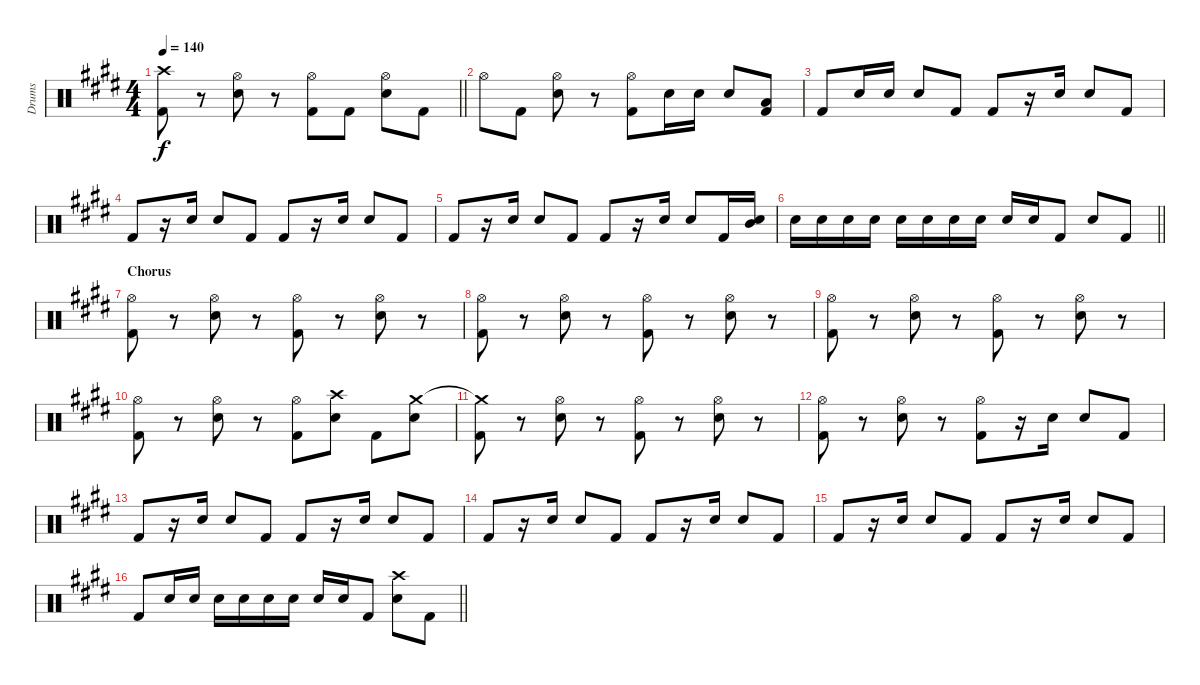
\track ("Drums" "Drums") {instrument percussion}
\staff {score}
\articulation defaults
\ts (4 4)
\tempo 140
\clef neutral
\barLineRight lightlight
\ks c#minor
("Crash high (hit)" "Kick (hit) 2").8{dy f} r.8 ("Hi-Hat (open)" "Electric Snare (hit)").8 r.8 ("Hi-Hat (open)" "Kick (hit) 2").8 "Kick (hit) 2".8 ("Hi-Hat (open)" "Electric Snare (hit)").8 "Kick (hit) 2".8 |
"Hi-Hat (open)".8 "Kick (hit) 2".8 ("Hi-Hat (open)" "Electric Snare (hit)").8 r.8 ("Hi-Hat (open)" "Kick (hit) 2").8 "Electric Snare (hit)".16 "Electric Snare (hit)".16 "Electric Snare (hit)".8 ("Low Tom (hit)" "Kick (hit) 2").8 |
"Kick (hit) 2".8 "Electric Snare (hit)".16 "Electric Snare (hit)".16 "Electric Snare (hit)".8 "Kick (hit) 2".8 "Kick (hit) 2".8 r.16 "Electric Snare (hit)".16 "Electric Snare (hit)".8 "Kick (hit) 2".8 |
"Kick (hit) 2".8 r.16 "Electric Snare (hit)".16 "Electric Snare (hit)".8 "Kick (hit) 2".8 "Kick (hit) 2".8 r.16 "Electric Snare (hit)".16 "Electric Snare (hit)".8 "Kick (hit) 2".8 |
"Kick (hit) 2".8 r.16 "Electric Snare (hit)".16 "Electric Snare (hit)".8 "Kick (hit) 2".8 "Kick (hit) 2".8 r.16 "Electric Snare (hit)".16 "Electric Snare (hit)".8 "Kick (hit) 2".16 ("Mid Tom (hit)" "Electric Snare (hit)").16 |
\barLineRight lightlight "Electric Snare (hit)".16 "Electric Snare (hit)".16 "Electric Snare (hit)".16 "Electric Snare (hit)".16 "Electric Snare (hit)".16 "Electric Snare (hit)".16 "Electric Snare (hit)".16 "Electric Snare (hit)".16 "Electric Snare (hit)".16 "Electric Snare (hit)".16 "Kick (hit) 2".8 "Electric Snare (hit)".8 "Kick (hit) 2".8
|
\section ("" "Chorus")
("Hi-Hat (open)" "Kick (hit) 2").8 r.8 ("Hi-Hat (open)" "Electric Snare (hit)").8 r.8 ("Hi-Hat (open)" "Kick (hit) 2").8 r.8 ("Hi-Hat (open)" "Electric Snare (hit)").8 r.8 |
\ks e
("Hi-Hat (open)" "Kick (hit) 2").8 r.8 ("Hi-Hat (open)" "Electric Snare (hit)").8 r.8 ("Hi-Hat (open)" "Kick (hit) 2").8 r.8 ("Hi-Hat (open)" "Electric Snare (hit)").8 r.8 |
\ks c#minor
("Hi-Hat (open)" "Kick (hit) 2").8 r.8 ("Hi-Hat (open)" "Electric Snare (hit)").8 r.8 ("Hi-Hat (open)" "Kick (hit) 2").8 r.8 ("Hi-Hat (open)" "Electric Snare (hit)").8 r.8 |
\ks e
("Hi-Hat (open)" "Kick (hit) 2").8 r.8 ("Hi-Hat (open)" "Electric Snare (hit)").8 r.8 ("Hi-Hat (open)" "Kick (hit) 2").8 ("Crash high (hit)" "Electric Snare (hit)").8 "Kick (hit) 2".8 ("Crash medium (hit)" "Electric Snare (hit)").8 |
\ks c#minor
("Crash medium (hit)"{t} "Kick (hit) 2").8 r.8 ("Hi-Hat (open)" "Electric Snare (hit)").8 r.8 ("Hi-Hat (open)" "Kick (hit) 2").8 r.8 ("Hi-Hat (open)" "Electric Snare (hit)").8 r.8 |
\ks e
("Hi-Hat (open)" "Kick (hit) 2").8 r.8 ("Hi-Hat (open)" "Electric Snare (hit)").8 r.8 ("Hi-Hat (open)" "Kick (hit) 2").8 r.16 "Electric Snare (hit)".16 "Electric Snare (hit)".8 "Kick (hit) 2".8 |
\ks c#minor "Kick (hit) 2".8
r.16 "Electric Snare (hit)".16 "Electric Snare (hit)".8 "Kick (hit) 2".8 "Kick (hit) 2".8 r.16 "Electric Snare (hit)".16 "Electric Snare (hit)".8 "Kick (hit) 2".8 |
"Kick (hit) 2".8 r.16 "Electric Snare (hit)".16 "Electric Snare (hit)".8 "Kick (hit) 2".8 "Kick (hit) 2".8 r.16 "Electric Snare (hit)".16 "Electric Snare (hit)".8 "Kick (hit) 2".8 |
"Kick (hit) 2".8 r.16 "Electric Snare (hit)".16 "Electric Snare (hit)".8 "Kick (hit) 2".8 "Kick (hit) 2".8 r.16 "Electric Snare (hit)".16 "Electric Snare (hit)".8 "Kick (hit) 2".8 |
\barLineRight lightlight "Kick (hit) 2".8 "Electric Snare (hit)".16 "Electric Snare (hit)".16 "Electric Snare (hit)".16 "Electric Snare (hit)".16 "Electric Snare (hit)".16 "Electric Snare (hit)".16 "Electric Snare (hit)".16 "Electric Snare (hit)".16 "Kick (hit) 2".8
("Crash high (hit)" "Electric Snare (hit)").8 "Kick (hit) 2".8
